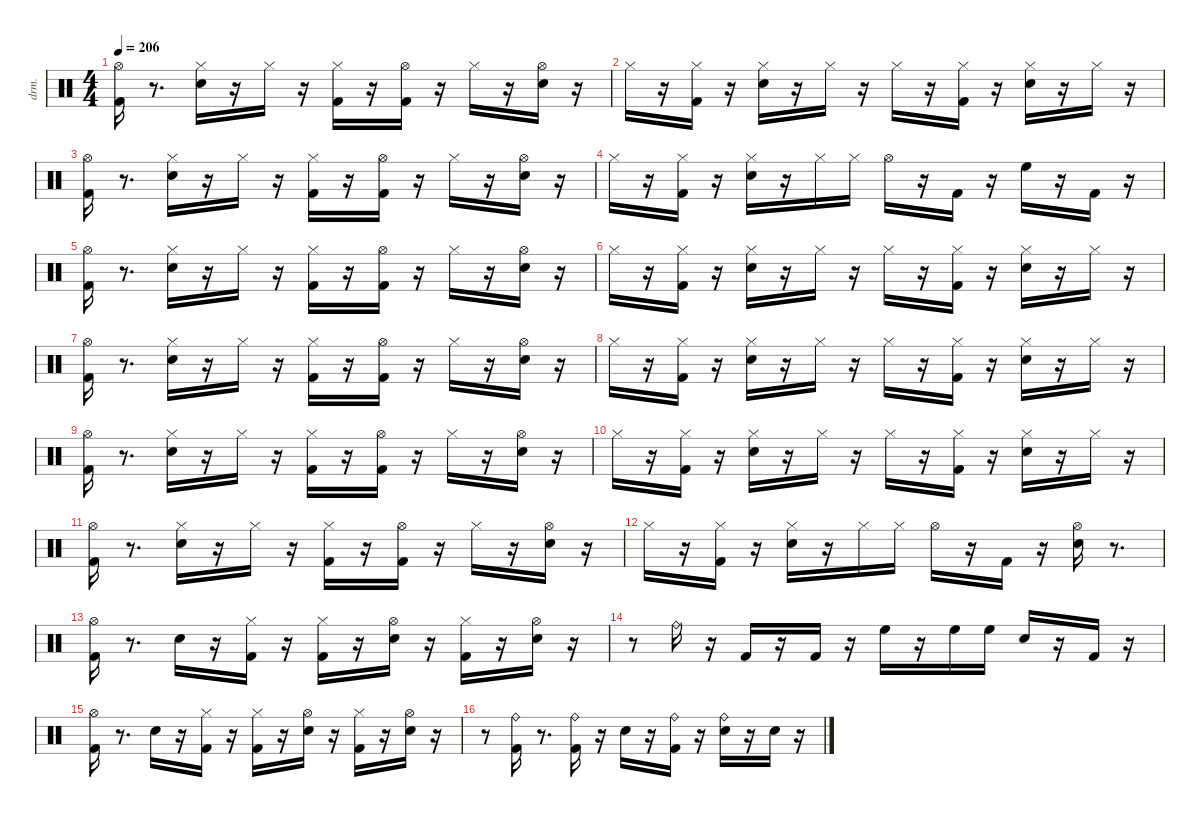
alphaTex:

\defaultSystemsLayout 4
\hideDynamics
\bracketExtendMode nobrackets
\otherSystemsTrackNameOrientation horizontal
\track ("EZdrummer 3" "drm.") {instrument percussion}
\staff {score}
\articulation defaults
\ts (4 4)
\tempo 206
\clef neutral
\ks aminor
("Kick (hit) 2" "Hi-Hat (open)"{acc #}).16{dy ff beam Down} r.8{d beam Down} ("Snare (hit) 2" "Hi-Hat (closed)"{acc #}).16{beam Down} r.16{beam Down} "Hi-Hat (closed)"{acc #}.16{dy p beam Down} r.16{beam Down} ("Kick (hit) 2" "Hi-Hat (closed)"{acc #}).16{dy ff beam Down} r.16{beam Down} ("Kick (hit) 2" "Hi-Hat (open)"{acc #}).16{beam Down} r.16{beam Down} "Hi-Hat (closed)"{acc #}.16{dy p beam Down} r.16{beam Down} ("Snare (hit) 2" "Hi-Hat (open)"{acc #}).16{dy ff beam Down} r.16{beam Down} |
"Hi-Hat (closed)"{acc #}.16{dy p beam Down} r.16{beam Down} ("Kick (hit) 2" "Hi-Hat (closed)"{acc #}).16{dy ff beam Down} r.16{beam Down} ("Snare (hit) 2" "Hi-Hat (closed)"{acc #}).16{beam Down} r.16{beam Down} "Hi-Hat (closed)"{acc #}.16{dy p beam Down} r.16{beam Down} "Hi-Hat (closed)"{acc #}.16{dy fff beam Down} r.16{beam Down} ("Kick (hit) 2" "Hi-Hat (closed)"{acc #}).16{dy ff beam Down} r.16{beam Down} ("Snare (hit) 2" "Hi-Hat (closed)"{acc #}).16{beam Down} r.16{beam Down} "Hi-Hat (closed)"{acc #}.16{dy p beam Down} r.16{beam Down} |
("Kick (hit) 2" "Hi-Hat (open)"{acc #}).16{dy ff beam Down} r.8{d beam Down} ("Snare (hit) 2" "Hi-Hat (closed)"{acc #}).16{beam Down} r.16{beam Down} "Hi-Hat (closed)"{acc #}.16{dy p beam Down} r.16{beam Down} ("Kick (hit) 2" "Hi-Hat (closed)"{acc #}).16{dy ff beam Down} r.16{beam Down} ("Kick (hit) 2" "Hi-Hat (open)"{acc #}).16{beam Down} r.16{beam Down} "Hi-Hat (closed)"{acc #}.16{dy p beam Down} r.16{beam Down} ("Snare (hit) 2" "Hi-Hat (open)"{acc #}).16{dy ff beam Down} r.16{beam Down} |
"Hi-Hat (closed)"{acc #}.16{dy p beam Down} r.16{beam Down} ("Kick (hit) 2" "Hi-Hat (closed)"{acc #}).16{dy ff beam Down} r.16{beam Down} ("Snare (hit) 2" "Hi-Hat (closed)"{acc #}).16{beam Down} r.16{beam Down} "Hi-Hat (closed)"{acc #}.16{dy fff beam Down} "Hi-Hat (closed)"{acc #}.16{beam Down} "Hi-Hat (open)"{acc #}.16{beam Down} r.16{beam Down} "Kick (hit) 2".16{dy ff beam Down} r.16{beam Down} "High Floor Tom (hit)".16{dy f beam Down} r.16{beam Down} "Kick (hit) 2".16{beam Down} r.16{beam Down} |
("Kick (hit) 2" "Hi-Hat (open)"{acc #}).16{dy ff beam Down} r.8{d beam Down} ("Snare (hit) 2" "Hi-Hat (closed)"{acc #}).16{beam Down} r.16{beam Down} "Hi-Hat (closed)"{acc #}.16{dy p beam Down} r.16{beam Down} ("Kick (hit) 2" "Hi-Hat (closed)"{acc #}).16{dy ff beam Down} r.16{beam Down} ("Kick (hit) 2" "Hi-Hat (open)"{acc #}).16{beam Down} r.16{beam Down} "Hi-Hat (closed)"{acc #}.16{dy p beam Down} r.16{beam Down} ("Snare (hit) 2" "Hi-Hat (open)"{acc #}).16{dy ff beam Down} r.16{beam Down} |
"Hi-Hat (closed)"{acc #}.16{dy p beam Down} r.16{beam Down} ("Kick (hit) 2" "Hi-Hat (closed)"{acc #}).16{dy ff beam Down} r.16{beam Down} ("Snare (hit) 2" "Hi-Hat (closed)"{acc #}).16{beam Down} r.16{beam Down} "Hi-Hat (closed)"{acc #}.16{dy p beam Down} r.16{beam Down} "Hi-Hat (closed)"{acc #}.16{dy fff beam Down} r.16{beam Down} ("Kick (hit) 2" "Hi-Hat (closed)"{acc #}).16{dy ff beam Down} r.16{beam Down} ("Snare (hit) 2" "Hi-Hat (closed)"{acc #}).16{beam Down} r.16{beam Down} "Hi-Hat (closed)"{acc #}.16{dy p beam Down} r.16{beam Down} |
("Kick (hit) 2" "Hi-Hat (open)"{acc #}).16{dy ff beam Down} r.8{d beam Down} ("Snare (hit) 2" "Hi-Hat (closed)"{acc #}).16{beam Down} r.16{beam Down} "Hi-Hat (closed)"{acc #}.16{dy p beam Down} r.16{beam Down} ("Kick (hit) 2" "Hi-Hat (closed)"{acc #}).16{dy ff beam Down} r.16{beam Down} ("Kick (hit) 2" "Hi-Hat (open)"{acc #}).16{beam Down} r.16{beam Down} "Hi-Hat (closed)"{acc #}.16{dy p beam Down} r.16{beam Down} ("Snare (hit) 2" "Hi-Hat (open)"{acc #}).16{dy ff beam Down} r.16{beam Down} |
"Hi-Hat (closed)"{acc #}.16{dy p beam Down} r.16{beam Down} ("Kick (hit) 2" "Hi-Hat (closed)"{acc #}).16{dy ff beam Down} r.16{beam Down} ("Snare (hit) 2" "Hi-Hat (closed)"{acc #}).16{beam Down} r.16{beam Down} "Hi-Hat (closed)"{acc #}.16{dy p beam Down} r.16{beam Down} "Hi-Hat (closed)"{acc #}.16{dy fff beam Down} r.16{beam Down} ("Kick (hit) 2" "Hi-Hat (closed)"{acc #}).16{dy ff beam Down} r.16{beam Down} ("Snare (hit) 2" "Hi-Hat (closed)"{acc #}).16{beam Down} r.16{beam Down} "Hi-Hat (closed)"{acc #}.16{dy p beam Down} r.16{beam Down} |
("Kick (hit) 2" "Hi-Hat (open)"{acc #}).16{dy ff beam Down} r.8{d beam Down} ("Snare (hit) 2" "Hi-Hat (closed)"{acc #}).16{beam Down} r.16{beam Down} "Hi-Hat (closed)"{acc #}.16{dy p beam Down} r.16{beam Down} ("Kick (hit) 2" "Hi-Hat (closed)"{acc #}).16{dy ff beam Down} r.16{beam Down} ("Kick (hit) 2" "Hi-Hat (open)"{acc #}).16{beam Down} r.16{beam Down} "Hi-Hat (closed)"{acc #}.16{dy p beam Down} r.16{beam Down} ("Snare (hit) 2" "Hi-Hat (open)"{acc #}).16{dy ff beam Down} r.16{beam Down} |
"Hi-Hat (closed)"{acc #}.16{dy p beam Down} r.16{beam Down} ("Kick (hit) 2" "Hi-Hat (closed)"{acc #}).16{dy ff beam Down} r.16{beam Down} ("Snare (hit) 2" "Hi-Hat (closed)"{acc #}).16{beam Down} r.16{beam Down} "Hi-Hat (closed)"{acc #}.16{dy p beam Down} r.16{beam Down} "Hi-Hat (closed)"{acc #}.16{dy fff beam Down} r.16{beam Down} ("Kick (hit) 2" "Hi-Hat (closed)"{acc #}).16{dy ff beam Down} r.16{beam Down} ("Snare (hit) 2" "Hi-Hat (closed)"{acc #}).16{beam Down} r.16{beam Down} "Hi-Hat (closed)"{acc #}.16{dy p beam Down} r.16{beam Down} |
("Kick (hit) 2" "Hi-Hat (open)"{acc #}).16{dy ff beam Down} r.8{d beam Down} ("Snare (hit) 2" "Hi-Hat (closed)"{acc #}).16{beam Down} r.16{beam Down} "Hi-Hat (closed)"{acc #}.16{dy p beam Down} r.16{beam Down} ("Kick (hit) 2" "Hi-Hat (closed)"{acc #}).16{dy ff beam Down} r.16{beam Down} ("Kick (hit) 2" "Hi-Hat (open)"{acc #}).16{beam Down} r.16{beam Down} "Hi-Hat (closed)"{acc #}.16{dy p beam Down} r.16{beam Down} ("Snare (hit) 2" "Hi-Hat (open)"{acc #}).16{dy ff beam Down} r.16{beam Down} |
"Hi-Hat (closed)"{acc #}.16{dy p beam Down} r.16{beam Down} ("Kick (hit) 2" "Hi-Hat (closed)"{acc #}).16{dy ff beam Down} r.16{beam Down} ("Snare (hit) 2" "Hi-Hat (closed)"{acc #}).16{beam Down} r.16{beam Down} "Hi-Hat (closed)"{acc #}.16{dy fff beam Down} "Hi-Hat (closed)"{acc #}.16{beam Down} "Hi-Hat (open)"{acc #}.16{beam Down} r.16{beam Down} "Kick (hit) 2".16{dy ff beam Down} r.16{beam Down} ("Snare (hit) 2" "Hi-Hat (open)"{acc #}).16{beam Down} r.8{d beam Down} |
("Kick (hit) 2" "Hi-Hat (open)"{acc #}).16{dy fff beam Down} r.8{d beam Down} "Snare (hit) 2".16{dy pp beam Down} r.16{beam Down} ("Kick (hit) 2" "Hi-Hat (closed)"{acc #}).16{dy ff beam Down} r.16{beam Down} ("Kick (hit) 2" "Hi-Hat (closed)"{acc #}).16{beam Down} r.16{beam Down} ("Snare (hit) 2" "Hi-Hat (open)"{acc #}).16{beam Down} r.16{beam Down} ("Kick (hit) 2" "Hi-Hat (closed)"{acc #}).16{beam Down} r.16{beam Down} ("Snare (hit) 2" "Hi-Hat (open)"{acc #}).16{dy fff beam Down} r.16{beam Down} |
r.8{beam Down} "Ride (bell)".16{beam Down} r.16{beam Down} "Kick (hit) 2".16{dy mf beam Up} r.16{beam Up} "Kick (hit) 2".16{dy fff beam Up} r.16{beam Up} "High Floor Tom (hit)".16{dy ff beam Down} r.16{beam Down} "High Floor Tom (hit)".16{dy mf beam Down} "High Floor Tom (hit)".16{dy ppp beam Down} "Snare (hit) 2".16{dy ff beam Up} r.16{beam Up} "Kick (hit) 2".16{dy mp beam Up} r.16{beam Up} |
("Kick (hit) 2" "Hi-Hat (open)"{acc #}).16{dy ff beam Down} r.8{d beam Down} "Snare (hit) 2".16{dy pp beam Down} r.16{beam Down} ("Kick (hit) 2" "Hi-Hat (closed)"{acc #}).16{dy ff beam Down} r.16{beam Down} ("Kick (hit) 2" "Hi-Hat (closed)"{acc #}).16{beam Down} r.16{beam Down} ("Snare (hit) 2" "Hi-Hat (open)"{acc #}).16{beam Down} r.16{beam Down} ("Kick (hit) 2" "Hi-Hat (closed)"{acc #}).16{beam Down} r.16{beam Down} ("Snare (hit) 2" "Hi-Hat (open)"{acc #}).16{dy fff beam Down} r.16{beam Down} |
r.8{beam Down} ("Kick (hit) 2" "Ride (bell)").16{dy ff beam Down} r.8{d beam Down} ("Kick (hit) 2" "Ride (bell)").16{beam Down} r.16{beam Down} "Snare (hit) 2".16{beam Down} r.16{beam Down} ("Kick (hit) 2" "Ride (bell)").16{beam Down} r.16{beam Down} ("Snare (hit) 2" "Ride (bell)").16{beam Down} r.16{beam Down} "Snare (hit) 2".16{dy mp beam Down} r.16{beam Down}
